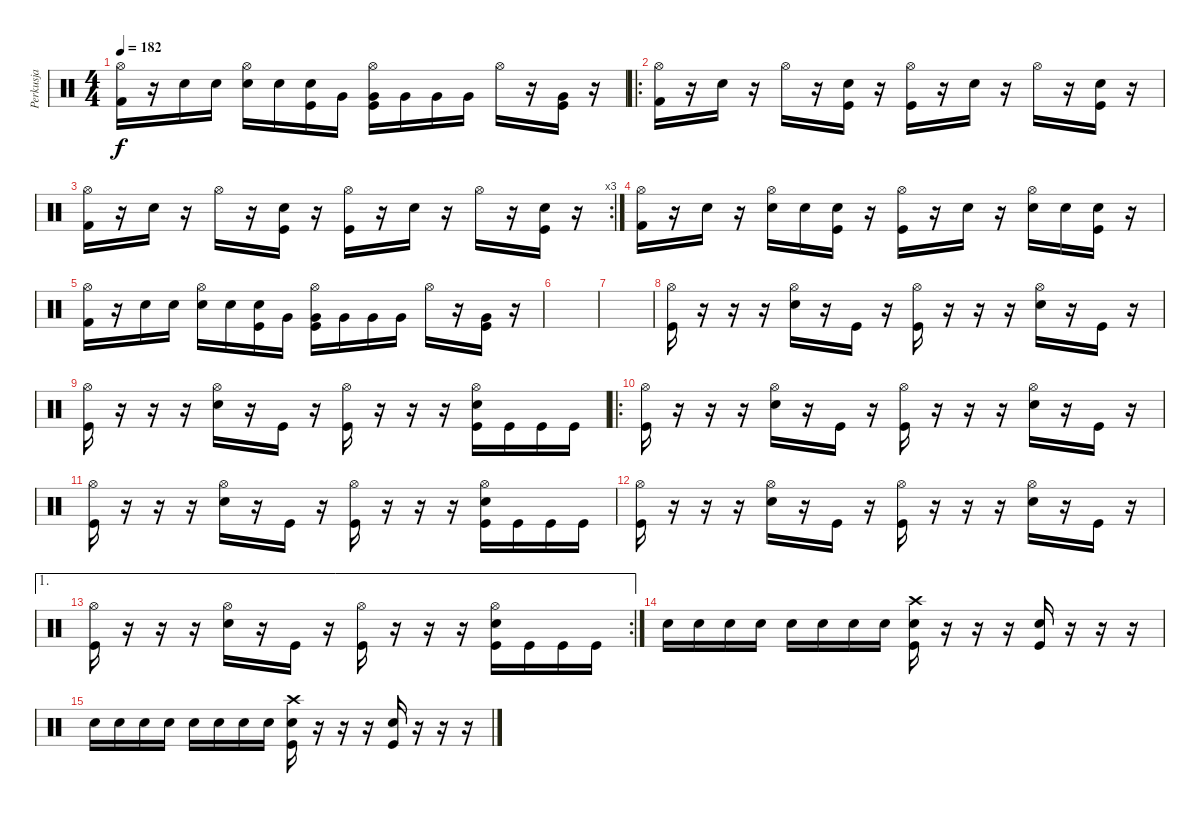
\track ("Perkusja" "Perkusja") {instrument percussion}
\staff {score}
\articulation defaults
\ts (4 4)
\tempo 182
\clef neutral
\ks c
("Hi-Hat (open)" "Kick (hit) 2").16{dy f} r.16 "Snare (hit) 2".16 "Snare (hit) 2".16 ("Hi-Hat (open)" "Snare (hit) 2").16 "Snare (hit) 2".16 ("Snare (hit) 2" "Kick (hit)").16 "Very Low Tom (hit)".16 ("Hi-Hat (open)" "Very Low Tom (hit)" "Kick (hit)").16 "Very Low Tom (hit)".16 "Very Low Tom (hit)".16 "Very Low Tom (hit)".16 "Hi-Hat (open)".16 r.16 ("Very Low Tom (hit)" "Kick (hit)").16 r.16 |
\ro
("Hi-Hat (open)" "Kick (hit) 2").16 r.16 "Snare (hit) 2".16 r.16 "Hi-Hat (open)".16 r.16 ("Snare (hit) 2" "Kick (hit)").16 r.16 ("Hi-Hat (open)" "Kick (hit)").16 r.16 "Snare (hit) 2".16 r.16 "Hi-Hat (open)".16 r.16 ("Snare (hit) 2" "Kick (hit)").16 r.16 |
\rc 3
("Hi-Hat (open)" "Kick (hit) 2").16 r.16 "Snare (hit) 2".16 r.16 "Hi-Hat (open)".16 r.16 ("Snare (hit) 2" "Kick (hit)").16 r.16 ("Hi-Hat (open)" "Kick (hit)").16 r.16 "Snare (hit) 2".16 r.16 "Hi-Hat (open)".16 r.16 ("Snare (hit) 2" "Kick (hit)").16 r.16 |
("Hi-Hat (open)" "Kick (hit) 2").16 r.16 "Snare (hit) 2".16 r.16 ("Hi-Hat (open)" "Snare (hit) 2").16 "Snare (hit) 2".16 ("Snare (hit) 2" "Kick (hit)").16 r.16 ("Hi-Hat (open)" "Kick (hit)").16 r.16 "Snare (hit) 2".16 r.16 ("Hi-Hat (open)" "Snare (hit) 2").16 "Snare (hit) 2".16 ("Snare (hit) 2" "Kick (hit)").16 r.16 |
("Hi-Hat (open)" "Kick (hit) 2").16 r.16 "Snare (hit) 2".16 "Snare (hit) 2".16 ("Hi-Hat (open)" "Snare (hit) 2").16 "Snare (hit) 2".16 ("Snare (hit) 2" "Kick (hit)").16 "Very Low Tom (hit)".16 ("Hi-Hat (open)" "Very Low Tom (hit)" "Kick (hit)").16 "Very Low Tom (hit)".16 "Very Low Tom (hit)".16 "Very Low Tom (hit)".16 "Hi-Hat (open)".16 r.16 ("Very Low Tom (hit)" "Kick (hit)").16 r.16 |
|
|
("Hi-Hat (open)" "Kick (hit)").16 r.16 r.16 r.16 ("Hi-Hat (open)" "Snare (hit) 2").16 r.16 "Kick (hit)".16 r.16 ("Hi-Hat (open)" "Kick (hit)").16 r.16 r.16 r.16 ("Hi-Hat (open)" "Snare (hit) 2").16 r.16 "Kick (hit)".16 r.16 |
("Hi-Hat (open)" "Kick (hit)").16 r.16 r.16 r.16 ("Hi-Hat (open)" "Snare (hit) 2").16 r.16 "Kick (hit)".16 r.16 ("Hi-Hat (open)" "Kick (hit)").16 r.16 r.16 r.16 ("Hi-Hat (open)" "Snare (hit) 2" "Kick (hit)").16 "Kick (hit)".16 "Kick (hit)".16 "Kick (hit)".16 |
\ro
("Hi-Hat (open)" "Kick (hit)").16 r.16 r.16 r.16 ("Hi-Hat (open)" "Snare (hit) 2").16 r.16 "Kick (hit)".16 r.16 ("Hi-Hat (open)" "Kick (hit)").16 r.16 r.16 r.16 ("Hi-Hat (open)" "Snare (hit) 2").16 r.16 "Kick (hit)".16 r.16 |
("Hi-Hat (open)" "Kick (hit)").16 r.16 r.16 r.16 ("Hi-Hat (open)" "Snare (hit) 2").16 r.16 "Kick (hit)".16 r.16 ("Hi-Hat (open)" "Kick (hit)").16 r.16 r.16 r.16 ("Hi-Hat (open)" "Snare (hit) 2" "Kick (hit)").16 "Kick (hit)".16 "Kick (hit)".16 "Kick (hit)".16 |
("Hi-Hat (open)" "Kick (hit)").16 r.16 r.16 r.16 ("Hi-Hat (open)" "Snare (hit) 2").16 r.16 "Kick (hit)".16 r.16 ("Hi-Hat (open)" "Kick (hit)").16 r.16 r.16 r.16 ("Hi-Hat (open)" "Snare (hit) 2").16 r.16 "Kick (hit)".16 r.16 |
\ae 1
\rc 2
("Hi-Hat (open)" "Kick (hit)").16 r.16 r.16 r.16 ("Hi-Hat (open)" "Snare (hit) 2").16 r.16 "Kick (hit)".16 r.16 ("Hi-Hat (open)" "Kick (hit)").16 r.16 r.16 r.16 ("Hi-Hat (open)" "Snare (hit) 2" "Kick (hit)").16 "Kick (hit)".16 "Kick (hit)".16 "Kick (hit)".16 |
"Snare (hit) 2".16 "Snare (hit) 2".16 "Snare (hit) 2".16 "Snare (hit) 2".16 "Snare (hit) 2".16 "Snare (hit) 2".16 "Snare (hit) 2".16 "Snare (hit) 2".16 ("Crash high (hit)" "Snare (hit) 2" "Kick (hit)").16 r.16 r.16 r.16 ("Snare (hit) 2" "Kick (hit)").16 r.16 r.16 r.16 |
"Snare (hit) 2".16 "Snare (hit) 2".16 "Snare (hit) 2".16 "Snare (hit) 2".16 "Snare (hit) 2".16 "Snare (hit) 2".16 "Snare (hit) 2".16 "Snare (hit) 2".16 ("Crash high (hit)" "Snare (hit) 2" "Kick (hit)").16 r.16 r.16 r.16 ("Snare (hit) 2" "Kick (hit)").16 r.16 r.16 r.16
